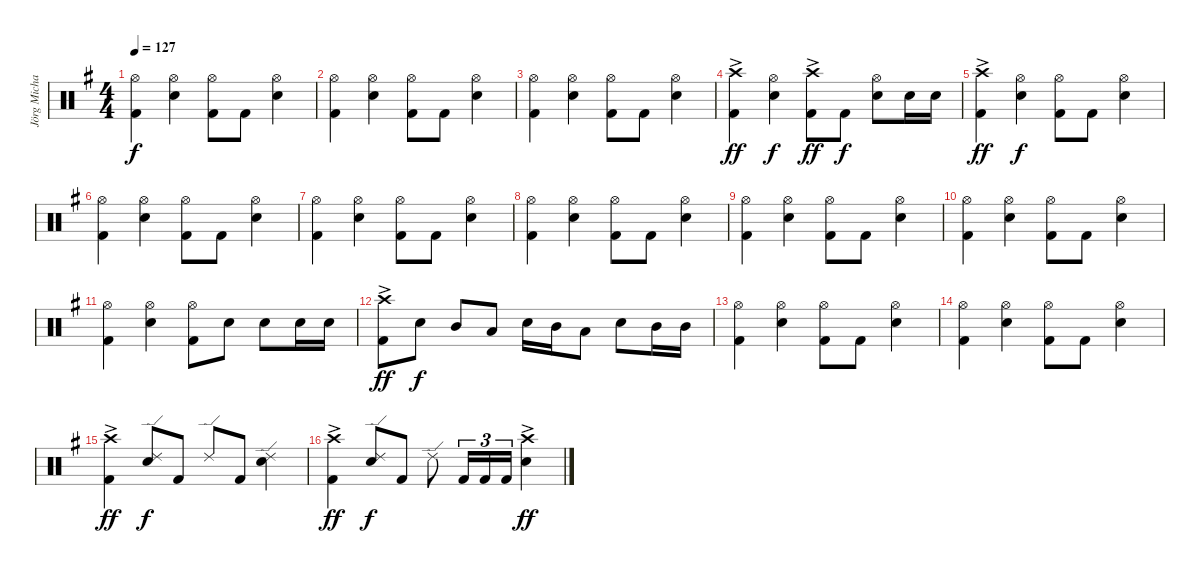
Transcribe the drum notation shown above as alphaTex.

\track ("Jörg Michael" "Jörg Micha") {instrument percussion}
\staff {score}
\articulation defaults
\ts (4 4)
\tempo 127
\clef neutral
\ks g
("Hi-Hat (open)" "Kick (hit) 2").4{dy f} ("Hi-Hat (open)" "Electric Snare (hit)").4 ("Hi-Hat (open)" "Kick (hit) 2").8 "Kick (hit) 2".8 ("Hi-Hat (open)" "Electric Snare (hit)").4 |
("Hi-Hat (open)" "Kick (hit) 2").4 ("Hi-Hat (open)" "Electric Snare (hit)").4 ("Hi-Hat (open)" "Kick (hit) 2").8 "Kick (hit) 2".8 ("Hi-Hat (open)" "Electric Snare (hit)").4 |
("Hi-Hat (open)" "Kick (hit) 2").4 ("Hi-Hat (open)" "Electric Snare (hit)").4 ("Hi-Hat (open)" "Kick (hit) 2").8 "Kick (hit) 2".8 ("Hi-Hat (open)" "Electric Snare (hit)").4 |
("Crash high (hit)"{ac} "Kick (hit) 2").4{dy ff} ("Hi-Hat (open)" "Electric Snare (hit)").4{dy f} ("Crash high (hit)"{ac} "Kick (hit) 2").8{dy ff} "Kick (hit) 2".8{dy f} ("Hi-Hat (open)" "Electric Snare (hit)").8 "Electric Snare (hit)".16 "Electric Snare (hit)".16 |
("Crash high (hit)"{ac} "Kick (hit) 2"{ac}).4{dy ff} ("Hi-Hat (open)" "Electric Snare (hit)").4{dy f} ("Hi-Hat (open)" "Kick (hit) 2").8 "Kick (hit) 2".8 ("Hi-Hat (open)" "Electric Snare (hit)").4 |
("Hi-Hat (open)" "Kick (hit) 2").4 ("Hi-Hat (open)" "Electric Snare (hit)").4 ("Hi-Hat (open)" "Kick (hit) 2").8 "Kick (hit) 2".8 ("Hi-Hat (open)" "Electric Snare (hit)").4 |
("Hi-Hat (open)" "Kick (hit) 2").4 ("Hi-Hat (open)" "Electric Snare (hit)").4 ("Hi-Hat (open)" "Kick (hit) 2").8 "Kick (hit) 2".8 ("Hi-Hat (open)" "Electric Snare (hit)").4 |
("Hi-Hat (open)" "Kick (hit) 2").4 ("Hi-Hat (open)" "Electric Snare (hit)").4 ("Hi-Hat (open)" "Kick (hit) 2").8 "Kick (hit) 2".8 ("Hi-Hat (open)" "Electric Snare (hit)").4 |
("Hi-Hat (open)" "Kick (hit) 2").4 ("Hi-Hat (open)" "Electric Snare (hit)").4 ("Hi-Hat (open)" "Kick (hit) 2").8 "Kick (hit) 2".8 ("Hi-Hat (open)" "Electric Snare (hit)").4 |
("Hi-Hat (open)" "Kick (hit) 2").4 ("Hi-Hat (open)" "Electric Snare (hit)").4 ("Hi-Hat (open)" "Kick (hit) 2").8 "Kick (hit) 2".8 ("Hi-Hat (open)" "Electric Snare (hit)").4 |
("Hi-Hat (open)" "Kick (hit) 2").4 ("Hi-Hat (open)" "Electric Snare (hit)").4 ("Hi-Hat (open)" "Kick (hit) 2").8 "Electric Snare (hit)".8 "Electric Snare (hit)".8 "Electric Snare (hit)".16 "Electric Snare (hit)".16 |
("Crash high (hit)"{ac} "Kick (hit) 2").8{dy ff} "Electric Snare (hit)".8{dy f} "Mid Tom (hit)".8 "Low Tom (hit)".8 "Electric Snare (hit)".16 "Mid Tom (hit)".16 "Low Tom (hit)".8 "Electric Snare (hit)".8 "Mid Tom (hit)".16 "Mid Tom (hit)".16 |
("Hi-Hat (open)" "Kick (hit) 2").4 ("Hi-Hat (open)" "Electric Snare (hit)").4 ("Hi-Hat (open)" "Kick (hit) 2").8 "Kick (hit) 2".8 ("Hi-Hat (open)" "Electric Snare (hit)").4 |
("Hi-Hat (open)" "Kick (hit) 2").4 ("Hi-Hat (open)" "Electric Snare (hit)").4 ("Hi-Hat (open)" "Kick (hit) 2").8 "Kick (hit) 2".8 ("Hi-Hat (open)" "Electric Snare (hit)").4 |
("Crash high (hit)"{ac} "Kick (hit) 2"{ac}).4{dy ff} ("Ride (edge) 2" "Electric Snare (hit)").8{dy f} "Kick (hit) 2".8 "Ride (edge) 2".8 "Kick (hit) 2".8 ("Electric Snare (hit)" "Ride (edge) 2").4 |
("Crash high (hit)"{ac} "Kick (hit) 2"{ac}).4{dy ff} ("Ride (edge) 2" "Electric Snare (hit)").8{dy f} "Kick (hit) 2".8 "Ride (edge) 2".8 "Kick (hit) 2".16{tu (3 2)} "Kick (hit) 2".16{tu (3 2)} "Kick (hit) 2".16{tu (3 2)} ("Crash high (hit)"{ac} "Electric Snare (hit)"{ac}).4{dy ff}
